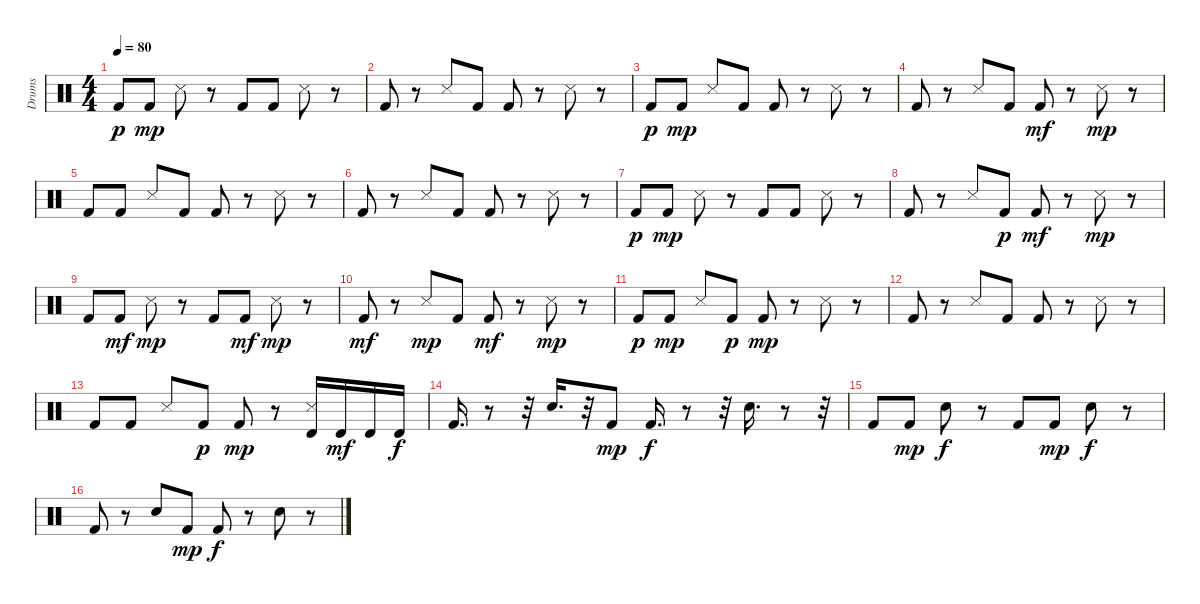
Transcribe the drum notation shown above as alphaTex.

\track ("Drums" "Drums") {instrument percussion}
\staff {score}
\articulation defaults
\ts (4 4)
\tempo 80
\clef neutral
\ks c "Kick (hit) 2".8{dy p} "Kick (hit) 2".8{dy mp} "Snare (side stick) 3".8
r.8 "Kick (hit) 2".8 "Kick (hit) 2".8 "Snare (side stick) 3".8 r.8 |
"Kick (hit) 2".8 r.8 "Snare (side stick) 3".8 "Kick (hit) 2".8 "Kick (hit) 2".8 r.8 "Snare (side stick) 3".8 r.8 |
"Kick (hit) 2".8{dy p} "Kick (hit) 2".8{dy mp} "Snare (side stick) 3".8 "Kick (hit) 2".8 "Kick (hit) 2".8 r.8 "Snare (side stick) 3".8 r.8 |
"Kick (hit) 2".8 r.8 "Snare (side stick) 3".8 "Kick (hit) 2".8 "Kick (hit) 2".8{dy mf} r.8 "Snare (side stick) 3".8{dy mp} r.8 |
"Kick (hit) 2".8 "Kick (hit) 2".8 "Snare (side stick) 3".8 "Kick (hit) 2".8 "Kick (hit) 2".8 r.8 "Snare (side stick) 3".8 r.8 |
"Kick (hit) 2".8 r.8 "Snare (side stick) 3".8 "Kick (hit) 2".8 "Kick (hit) 2".8 r.8 "Snare (side stick) 3".8 r.8 |
"Kick (hit) 2".8{dy p} "Kick (hit) 2".8{dy mp} "Snare (side stick) 3".8 r.8 "Kick (hit) 2".8 "Kick (hit) 2".8 "Snare (side stick) 3".8 r.8 |
"Kick (hit) 2".8 r.8 "Snare (side stick) 3".8 "Kick (hit) 2".8{dy p} "Kick (hit) 2".8{dy mf} r.8 "Snare (side stick) 3".8{dy mp} r.8 |
"Kick (hit) 2".8 "Kick (hit) 2".8{dy mf} "Snare (side stick) 3".8{dy mp} r.8 "Kick (hit) 2".8 "Kick (hit) 2".8{dy mf} "Snare (side stick) 3".8{dy mp} r.8 |
"Kick (hit) 2".8{dy mf} r.8 "Snare (side stick) 3".8{dy mp} "Kick (hit) 2".8 "Kick (hit) 2".8{dy mf} r.8 "Snare (side stick) 3".8{dy mp} r.8 |
"Kick (hit) 2".8{dy p} "Kick (hit) 2".8{dy mp} "Snare (side stick) 3".8 "Kick (hit) 2".8{dy p} "Kick (hit) 2".8{dy mp} r.8 "Snare (side stick) 3".8 r.8 |
"Kick (hit) 2".8 r.8 "Snare (side stick) 3".8 "Kick (hit) 2".8 "Kick (hit) 2".8 r.8 "Snare (side stick) 3".8 r.8 |
"Kick (hit) 2".8 "Kick (hit) 2".8 "Snare (side stick) 3".8 "Kick (hit) 2".8{dy p} "Kick (hit) 2".8{dy mp} r.8 ("Timbale high (hit)" "Snare (side stick) 3").16 "Timbale high (hit)".16{dy mf} "Timbale high (hit)".16 "Timbale high (hit)".16{dy f} |
"Kick (hit) 2".16{d} r.8 r.32 "Electric Snare (hit)".16{d} r.32 "Kick (hit) 2".8{dy mp} "Kick (hit) 2".16{d dy f} r.8 r.32 "Electric Snare (hit)".16{d} r.8 r.32 |
"Kick (hit) 2".8 "Kick (hit) 2".8{dy mp} "Electric Snare (hit)".8{dy f} r.8 "Kick (hit) 2".8 "Kick (hit) 2".8{dy mp} "Electric Snare (hit)".8{dy f} r.8 |
"Kick (hit) 2".8 r.8 "Electric Snare (hit)".8 "Kick (hit) 2".8{dy mp} "Kick (hit) 2".8{dy f} r.8 "Electric Snare (hit)".8 r.8
